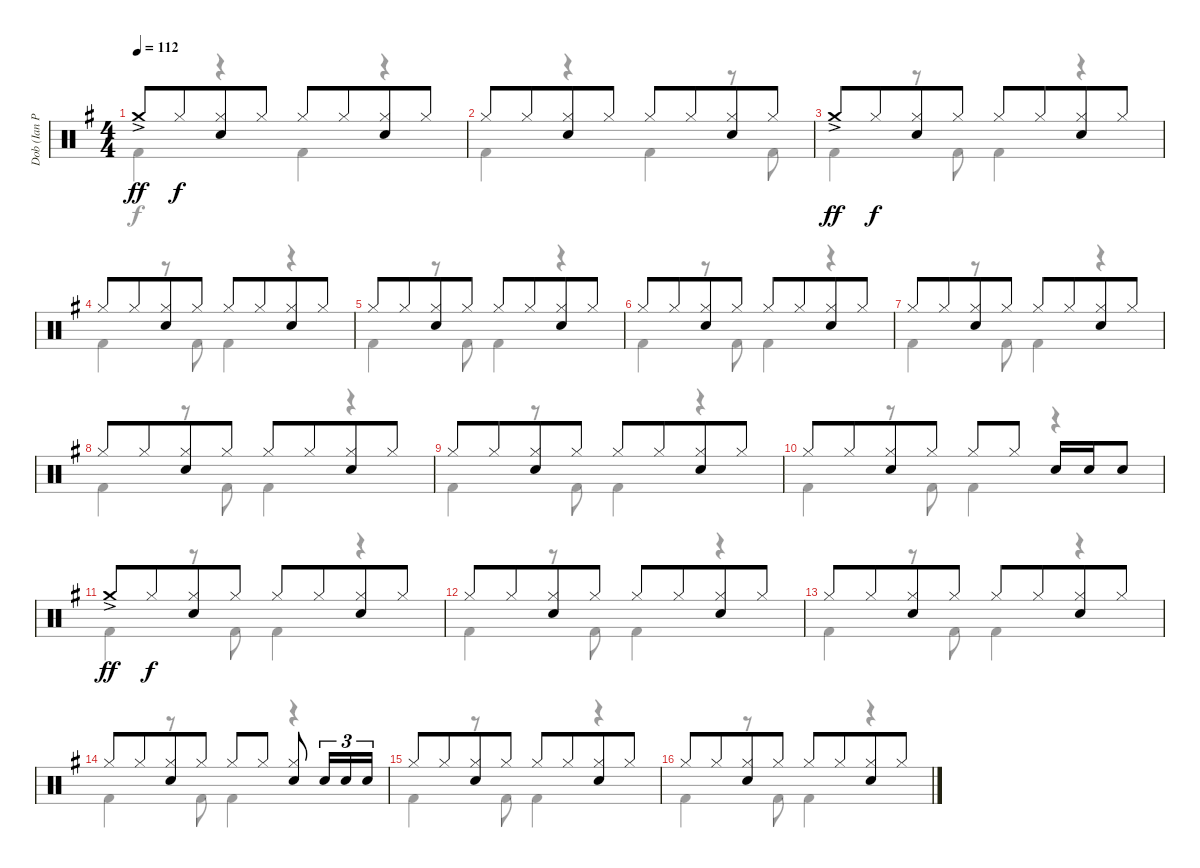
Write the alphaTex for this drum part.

\track ("Dob (Ian Paice)" "Dob (Ian P") {instrument percussion}
\staff {score}
\articulation defaults
\voice
\ts (4 4)
\tempo 112
\clef neutral
\ks g "Crash medium (hit)"{ac}.8{dy ff} "Hi-Hat (closed)".8{dy f beam merge}
("Hi-Hat (closed)" "Electric Snare (hit)").8 "Hi-Hat (closed)".8 "Hi-Hat (closed)".8 "Hi-Hat (closed)".8{beam merge} ("Hi-Hat (closed)" "Electric Snare (hit)").8 "Hi-Hat (closed)".8 |
"Hi-Hat (closed)".8 "Hi-Hat (closed)".8{beam merge} ("Hi-Hat (closed)" "Electric Snare (hit)").8 "Hi-Hat (closed)".8 "Hi-Hat (closed)".8 "Hi-Hat (closed)".8{beam merge} ("Hi-Hat (closed)" "Electric Snare (hit)").8 "Hi-Hat (closed)".8 |
"Crash medium (hit)"{ac}.8{dy ff} "Hi-Hat (closed)".8{dy f beam merge} ("Hi-Hat (closed)" "Electric Snare (hit)").8 "Hi-Hat (closed)".8 "Hi-Hat (closed)".8 "Hi-Hat (closed)".8{beam merge} ("Hi-Hat (closed)" "Electric Snare (hit)").8 "Hi-Hat (closed)".8 |
"Hi-Hat (closed)".8 "Hi-Hat (closed)".8{beam merge} ("Hi-Hat (closed)" "Electric Snare (hit)").8 "Hi-Hat (closed)".8 "Hi-Hat (closed)".8 "Hi-Hat (closed)".8{beam merge} ("Hi-Hat (closed)" "Electric Snare (hit)").8 "Hi-Hat (closed)".8 |
"Hi-Hat (closed)".8 "Hi-Hat (closed)".8{beam merge} ("Hi-Hat (closed)" "Electric Snare (hit)").8 "Hi-Hat (closed)".8 "Hi-Hat (closed)".8 "Hi-Hat (closed)".8{beam merge} ("Hi-Hat (closed)" "Electric Snare (hit)").8 "Hi-Hat (closed)".8 |
"Hi-Hat (closed)".8 "Hi-Hat (closed)".8{beam merge} ("Hi-Hat (closed)" "Electric Snare (hit)").8 "Hi-Hat (closed)".8 "Hi-Hat (closed)".8 "Hi-Hat (closed)".8{beam merge} ("Hi-Hat (closed)" "Electric Snare (hit)").8 "Hi-Hat (closed)".8 |
"Hi-Hat (closed)".8 "Hi-Hat (closed)".8{beam merge} ("Hi-Hat (closed)" "Electric Snare (hit)").8 "Hi-Hat (closed)".8 "Hi-Hat (closed)".8 "Hi-Hat (closed)".8{beam merge} ("Hi-Hat (closed)" "Electric Snare (hit)").8 "Hi-Hat (closed)".8 |
"Hi-Hat (closed)".8 "Hi-Hat (closed)".8{beam merge} ("Hi-Hat (closed)" "Electric Snare (hit)").8 "Hi-Hat (closed)".8 "Hi-Hat (closed)".8 "Hi-Hat (closed)".8{beam merge} ("Hi-Hat (closed)" "Electric Snare (hit)").8 "Hi-Hat (closed)".8 |
"Hi-Hat (closed)".8 "Hi-Hat (closed)".8{beam merge} ("Hi-Hat (closed)" "Electric Snare (hit)").8 "Hi-Hat (closed)".8 "Hi-Hat (closed)".8 "Hi-Hat (closed)".8{beam merge} ("Hi-Hat (closed)" "Electric Snare (hit)").8 "Hi-Hat (closed)".8 |
"Hi-Hat (closed)".8 "Hi-Hat (closed)".8{beam merge} ("Hi-Hat (closed)" "Electric Snare (hit)").8 "Hi-Hat (closed)".8 "Hi-Hat (closed)".8 "Hi-Hat (closed)".8 "Electric Snare (hit)".16 "Electric Snare (hit)".16 "Electric Snare (hit)".8 |
"Crash medium (hit)"{ac}.8{dy ff} "Hi-Hat (closed)".8{dy f beam merge} ("Hi-Hat (closed)" "Electric Snare (hit)").8 "Hi-Hat (closed)".8 "Hi-Hat (closed)".8 "Hi-Hat (closed)".8{beam merge} ("Hi-Hat (closed)" "Electric Snare (hit)").8 "Hi-Hat (closed)".8 |
"Hi-Hat (closed)".8 "Hi-Hat (closed)".8{beam merge} ("Hi-Hat (closed)" "Electric Snare (hit)").8 "Hi-Hat (closed)".8 "Hi-Hat (closed)".8 "Hi-Hat (closed)".8{beam merge} ("Hi-Hat (closed)" "Electric Snare (hit)").8 "Hi-Hat (closed)".8 |
"Hi-Hat (closed)".8 "Hi-Hat (closed)".8{beam merge} ("Hi-Hat (closed)" "Electric Snare (hit)").8 "Hi-Hat (closed)".8 "Hi-Hat (closed)".8 "Hi-Hat (closed)".8{beam merge} ("Hi-Hat (closed)" "Electric Snare (hit)").8 "Hi-Hat (closed)".8 |
"Hi-Hat (closed)".8 "Hi-Hat (closed)".8{beam merge} ("Hi-Hat (closed)" "Electric Snare (hit)").8 "Hi-Hat (closed)".8 "Hi-Hat (closed)".8 "Hi-Hat (closed)".8 ("Hi-Hat (closed)" "Electric Snare (hit)").8 "Electric Snare (hit)".16{tu (3 2)} "Electric Snare (hit)".16{tu (3 2)} "Electric Snare (hit)".16{tu (3 2)} |
"Hi-Hat (closed)".8 "Hi-Hat (closed)".8{beam merge} ("Hi-Hat (closed)" "Electric Snare (hit)").8 "Hi-Hat (closed)".8 "Hi-Hat (closed)".8 "Hi-Hat (closed)".8{beam merge} ("Hi-Hat (closed)" "Electric Snare (hit)").8 "Hi-Hat (closed)".8 |
"Hi-Hat (closed)".8 "Hi-Hat (closed)".8{beam merge} ("Hi-Hat (closed)" "Electric Snare (hit)").8 "Hi-Hat (closed)".8 "Hi-Hat (closed)".8 "Hi-Hat (closed)".8{beam merge} ("Hi-Hat (closed)" "Electric Snare (hit)").8 "Hi-Hat (closed)".8
\voice
\clef neutral
\ottava regular
\simile none
\ks g "Kick (hit) 2".4{dy f}
r.4 "Kick (hit) 2".4 r.4 |
"Kick (hit) 2".4 r.4 "Kick (hit) 2".4 r.8 "Kick (hit) 2".8 |
"Kick (hit) 2".4 r.8 "Kick (hit) 2".8 "Kick (hit) 2".4 r.4 |
"Kick (hit) 2".4 r.8 "Kick (hit) 2".8 "Kick (hit) 2".4 r.4 |
"Kick (hit) 2".4 r.8 "Kick (hit) 2".8 "Kick (hit) 2".4 r.4 |
"Kick (hit) 2".4 r.8 "Kick (hit) 2".8 "Kick (hit) 2".4 r.4 |
"Kick (hit) 2".4 r.8 "Kick (hit) 2".8 "Kick (hit) 2".4 r.4 |
"Kick (hit) 2".4 r.8 "Kick (hit) 2".8 "Kick (hit) 2".4 r.4 |
"Kick (hit) 2".4 r.8 "Kick (hit) 2".8 "Kick (hit) 2".4 r.4 |
"Kick (hit) 2".4 r.8 "Kick (hit) 2".8 "Kick (hit) 2".4 r.4 |
"Kick (hit) 2".4 r.8 "Kick (hit) 2".8 "Kick (hit) 2".4 r.4 |
"Kick (hit) 2".4 r.8 "Kick (hit) 2".8 "Kick (hit) 2".4 r.4 |
"Kick (hit) 2".4 r.8 "Kick (hit) 2".8 "Kick (hit) 2".4 r.4 |
"Kick (hit) 2".4 r.8 "Kick (hit) 2".8 "Kick (hit) 2".4 r.4 |
"Kick (hit) 2".4 r.8 "Kick (hit) 2".8 "Kick (hit) 2".4 r.4 |
"Kick (hit) 2".4 r.8 "Kick (hit) 2".8 "Kick (hit) 2".4 r.4
